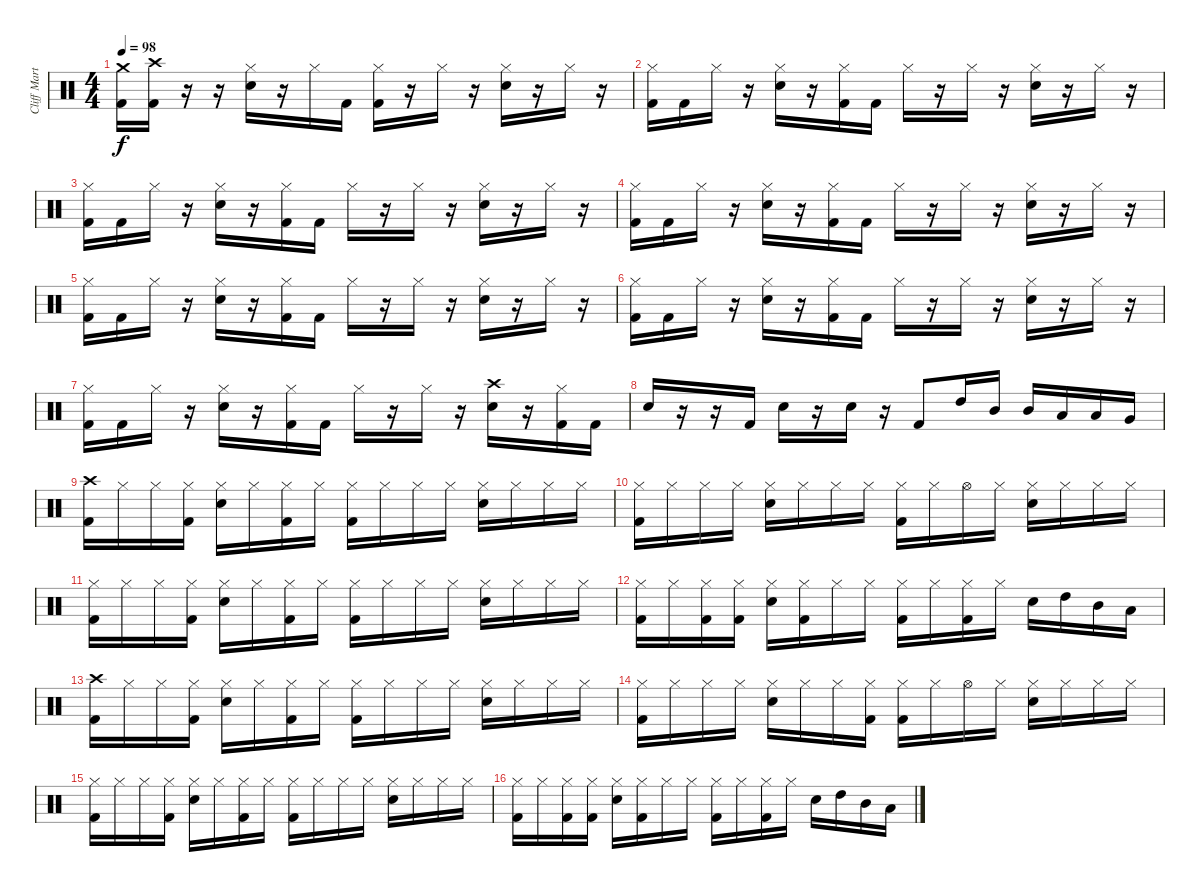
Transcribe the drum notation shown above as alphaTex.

\track ("Cliff Martinez" "Cliff Mart") {instrument percussion bank 1}
\staff {score}
\articulation defaults
\ts (4 4)
\tempo 98
\clef neutral
\ks c
("Crash medium (hit)" "Kick (hit) 2").16{dy f} ("Crash high (hit)" "Kick (hit) 2").16 r.16 r.16 ("Hi-Hat (closed)" "Snare (hit) 2").16 r.16 "Hi-Hat (closed)".16 "Kick (hit) 2".16 ("Hi-Hat (closed)" "Kick (hit) 2").16 r.16 "Hi-Hat (closed)".16 r.16 ("Hi-Hat (closed)" "Snare (hit) 2").16 r.16 "Hi-Hat (closed)".16 r.16 |
("Hi-Hat (closed)" "Kick (hit) 2").16 "Kick (hit) 2".16 "Hi-Hat (closed)".16 r.16 ("Hi-Hat (closed)" "Snare (hit) 2").16 r.16 ("Hi-Hat (closed)" "Kick (hit) 2").16 "Kick (hit) 2".16 "Hi-Hat (closed)".16 r.16 "Hi-Hat (closed)".16 r.16 ("Hi-Hat (closed)" "Snare (hit) 2").16 r.16 "Hi-Hat (closed)".16 r.16 |
("Hi-Hat (closed)" "Kick (hit) 2").16 "Kick (hit) 2".16 "Hi-Hat (closed)".16 r.16 ("Hi-Hat (closed)" "Snare (hit) 2").16 r.16 ("Hi-Hat (closed)" "Kick (hit) 2").16 "Kick (hit) 2".16 "Hi-Hat (closed)".16 r.16 "Hi-Hat (closed)".16 r.16 ("Hi-Hat (closed)" "Snare (hit) 2").16 r.16 "Hi-Hat (closed)".16 r.16 |
("Hi-Hat (closed)" "Kick (hit) 2").16 "Kick (hit) 2".16 "Hi-Hat (closed)".16 r.16 ("Hi-Hat (closed)" "Snare (hit) 2").16 r.16 ("Hi-Hat (closed)" "Kick (hit) 2").16 "Kick (hit) 2".16 "Hi-Hat (closed)".16 r.16 "Hi-Hat (closed)".16 r.16 ("Hi-Hat (closed)" "Snare (hit) 2").16 r.16 "Hi-Hat (closed)".16 r.16 |
("Hi-Hat (closed)" "Kick (hit) 2").16 "Kick (hit) 2".16 "Hi-Hat (closed)".16 r.16 ("Hi-Hat (closed)" "Snare (hit) 2").16 r.16 ("Hi-Hat (closed)" "Kick (hit) 2").16 "Kick (hit) 2".16 "Hi-Hat (closed)".16 r.16 "Hi-Hat (closed)".16 r.16 ("Hi-Hat (closed)" "Snare (hit) 2").16 r.16 "Hi-Hat (closed)".16 r.16 |
("Hi-Hat (closed)" "Kick (hit) 2").16 "Kick (hit) 2".16 "Hi-Hat (closed)".16 r.16 ("Hi-Hat (closed)" "Snare (hit) 2").16 r.16 ("Hi-Hat (closed)" "Kick (hit) 2").16 "Kick (hit) 2".16 "Hi-Hat (closed)".16 r.16 "Hi-Hat (closed)".16 r.16 ("Hi-Hat (closed)" "Snare (hit) 2").16 r.16 "Hi-Hat (closed)".16 r.16 |
("Hi-Hat (closed)" "Kick (hit) 2").16 "Kick (hit) 2".16 "Hi-Hat (closed)".16 r.16 ("Hi-Hat (closed)" "Snare (hit) 2").16 r.16 ("Hi-Hat (closed)" "Kick (hit) 2").16 "Kick (hit) 2".16 "Hi-Hat (closed)".16 r.16 "Hi-Hat (closed)".16 r.16 ("Crash high (hit)" "Snare (hit) 2").16 r.16 ("Hi-Hat (closed)" "Kick (hit) 2").16 "Kick (hit) 2".16 |
"Snare (hit) 2".16 r.16 r.16 "Kick (hit) 2".16 "Snare (hit) 2".16 r.16 "Snare (hit) 2".16 r.16 "Kick (hit) 2".8 "High Tom (hit)".16 "Mid Tom (hit)".16 "Mid Tom (hit)".16 "Low Tom (hit)".16 "Low Tom (hit)".16 "Very Low Tom (hit)".16 |
("Crash high (hit)" "Kick (hit) 2").16 "Hi-Hat (closed)".16 "Hi-Hat (closed)".16 ("Hi-Hat (closed)" "Kick (hit) 2").16 ("Hi-Hat (closed)" "Snare (hit) 2").16 "Hi-Hat (closed)".16 ("Hi-Hat (closed)" "Kick (hit) 2").16 "Hi-Hat (closed)".16 ("Hi-Hat (closed)" "Kick (hit) 2").16 "Hi-Hat (closed)".16 "Hi-Hat (closed)".16 "Hi-Hat (closed)".16 ("Hi-Hat (closed)" "Snare (hit) 2").16 "Hi-Hat (closed)".16 "Hi-Hat (closed)".16 "Hi-Hat (closed)".16 |
("Hi-Hat (closed)" "Kick (hit) 2").16 "Hi-Hat (closed)".16 "Hi-Hat (closed)".16 "Hi-Hat (closed)".16 ("Hi-Hat (closed)" "Snare (hit) 2").16 "Hi-Hat (closed)".16 "Hi-Hat (closed)".16 "Hi-Hat (closed)".16 ("Hi-Hat (closed)" "Kick (hit) 2").16 "Hi-Hat (closed)".16 "Hi-Hat (open)".16 "Hi-Hat (closed)".16 ("Hi-Hat (closed)" "Snare (hit) 2").16 "Hi-Hat (closed)".16 "Hi-Hat (closed)".16 "Hi-Hat (closed)".16 |
("Hi-Hat (closed)" "Kick (hit) 2").16 "Hi-Hat (closed)".16 "Hi-Hat (closed)".16 ("Hi-Hat (closed)" "Kick (hit) 2").16 ("Hi-Hat (closed)" "Snare (hit) 2").16 "Hi-Hat (closed)".16 ("Hi-Hat (closed)" "Kick (hit) 2").16 "Hi-Hat (closed)".16 ("Hi-Hat (closed)" "Kick (hit) 2").16 "Hi-Hat (closed)".16 "Hi-Hat (closed)".16 "Hi-Hat (closed)".16 ("Hi-Hat (closed)" "Snare (hit) 2").16 "Hi-Hat (closed)".16 "Hi-Hat (closed)".16 "Hi-Hat (closed)".16 |
("Hi-Hat (closed)" "Kick (hit) 2").16 "Hi-Hat (closed)".16 ("Hi-Hat (closed)" "Kick (hit) 2").16 ("Hi-Hat (closed)" "Kick (hit) 2").16 ("Hi-Hat (closed)" "Snare (hit) 2").16 ("Hi-Hat (closed)" "Kick (hit) 2").16 "Hi-Hat (closed)".16 "Hi-Hat (closed)".16 ("Hi-Hat (closed)" "Kick (hit) 2").16 "Hi-Hat (closed)".16 ("Hi-Hat (closed)" "Kick (hit) 2").16 "Hi-Hat (closed)".16 "Snare (hit) 2".16 "High Tom (hit)".16 "Mid Tom (hit)".16 "Low Tom (hit)".16 |
("Crash high (hit)" "Kick (hit) 2").16 "Hi-Hat (closed)".16 "Hi-Hat (closed)".16 ("Hi-Hat (closed)" "Kick (hit) 2").16 ("Hi-Hat (closed)" "Snare (hit) 2").16 "Hi-Hat (closed)".16 ("Hi-Hat (closed)" "Kick (hit) 2").16 "Hi-Hat (closed)".16 ("Hi-Hat (closed)" "Kick (hit) 2").16 "Hi-Hat (closed)".16 "Hi-Hat (closed)".16 "Hi-Hat (closed)".16 ("Hi-Hat (closed)" "Snare (hit) 2").16 "Hi-Hat (closed)".16 "Hi-Hat (closed)".16 "Hi-Hat (closed)".16 |
("Hi-Hat (closed)" "Kick (hit) 2").16 "Hi-Hat (closed)".16 "Hi-Hat (closed)".16 "Hi-Hat (closed)".16 ("Hi-Hat (closed)" "Snare (hit) 2").16 "Hi-Hat (closed)".16 "Hi-Hat (closed)".16 ("Hi-Hat (closed)" "Kick (hit) 2").16 ("Hi-Hat (closed)" "Kick (hit) 2").16 "Hi-Hat (closed)".16 "Hi-Hat (open)".16 "Hi-Hat (closed)".16 ("Hi-Hat (closed)" "Snare (hit) 2").16 "Hi-Hat (closed)".16 "Hi-Hat (closed)".16 "Hi-Hat (closed)".16 |
("Hi-Hat (closed)" "Kick (hit) 2").16 "Hi-Hat (closed)".16 "Hi-Hat (closed)".16 ("Hi-Hat (closed)" "Kick (hit) 2").16 ("Hi-Hat (closed)" "Snare (hit) 2").16 "Hi-Hat (closed)".16 ("Hi-Hat (closed)" "Kick (hit) 2").16 "Hi-Hat (closed)".16 ("Hi-Hat (closed)" "Kick (hit) 2").16 "Hi-Hat (closed)".16 "Hi-Hat (closed)".16 "Hi-Hat (closed)".16 ("Hi-Hat (closed)" "Snare (hit) 2").16 "Hi-Hat (closed)".16 "Hi-Hat (closed)".16 "Hi-Hat (closed)".16 |
("Hi-Hat (closed)" "Kick (hit) 2").16 "Hi-Hat (closed)".16 ("Hi-Hat (closed)" "Kick (hit) 2").16 ("Hi-Hat (closed)" "Kick (hit) 2").16 ("Hi-Hat (closed)" "Snare (hit) 2").16 ("Hi-Hat (closed)" "Kick (hit) 2").16 "Hi-Hat (closed)".16 "Hi-Hat (closed)".16 ("Hi-Hat (closed)" "Kick (hit) 2").16 "Hi-Hat (closed)".16 ("Hi-Hat (closed)" "Kick (hit) 2").16 "Hi-Hat (closed)".16 "Snare (hit) 2".16 "High Tom (hit)".16 "Mid Tom (hit)".16 "Low Tom (hit)".16
